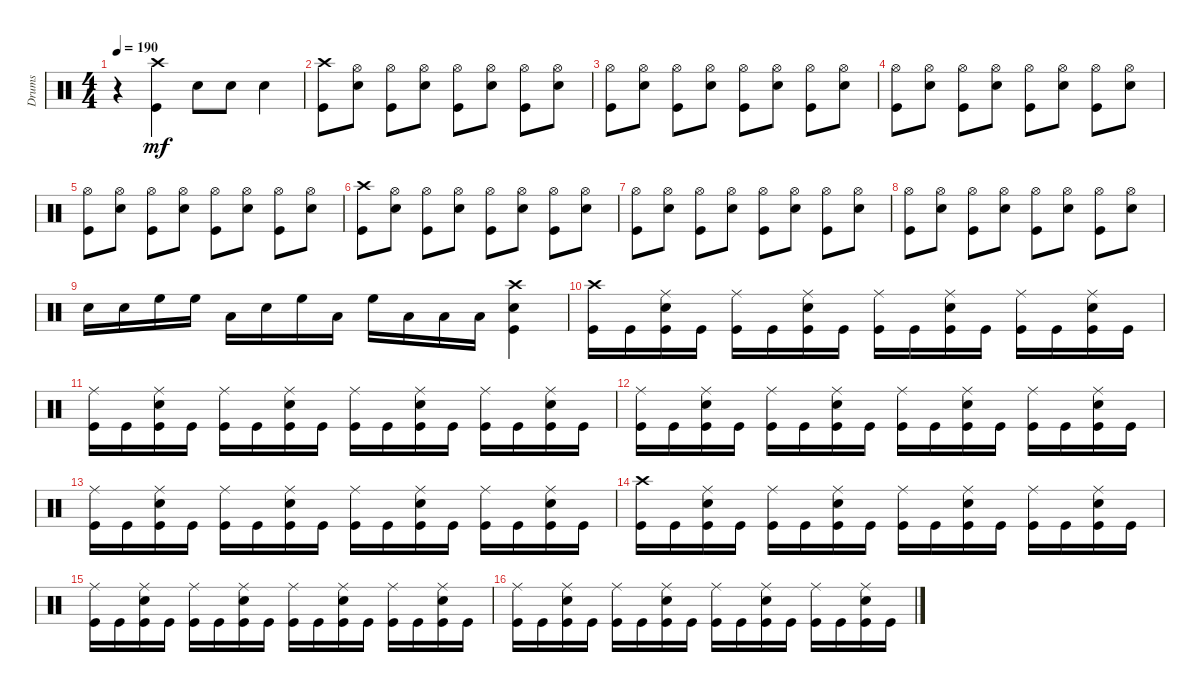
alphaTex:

\track ("Drums" "Drums") {instrument percussion}
\staff {score}
\articulation defaults
\ts (4 4)
\tempo 190
\clef neutral
\ks c
r.4{dy mf} ("Crash high (hit)" "Kick (hit)").4 "Snare (hit) 2".8 "Snare (hit) 2".8 "Snare (hit) 2".4 |
("Crash high (hit)" "Kick (hit)").8 ("Snare (hit) 2" "Hi-Hat (open)").8 ("Hi-Hat (open)" "Kick (hit)").8 ("Snare (hit) 2" "Hi-Hat (open)").8 ("Hi-Hat (open)" "Kick (hit)").8 ("Snare (hit) 2" "Hi-Hat (open)").8 ("Hi-Hat (open)" "Kick (hit)").8 ("Snare (hit) 2" "Hi-Hat (open)").8 |
("Kick (hit)" "Hi-Hat (open)").8 ("Snare (hit) 2" "Hi-Hat (open)").8 ("Kick (hit)" "Hi-Hat (open)").8 ("Snare (hit) 2" "Hi-Hat (open)").8 ("Kick (hit)" "Hi-Hat (open)").8 ("Snare (hit) 2" "Hi-Hat (open)").8 ("Kick (hit)" "Hi-Hat (open)").8 ("Snare (hit) 2" "Hi-Hat (open)").8 |
("Hi-Hat (open)" "Kick (hit)").8 ("Snare (hit) 2" "Hi-Hat (open)").8 ("Hi-Hat (open)" "Kick (hit)").8 ("Snare (hit) 2" "Hi-Hat (open)").8 ("Hi-Hat (open)" "Kick (hit)").8 ("Snare (hit) 2" "Hi-Hat (open)").8 ("Hi-Hat (open)" "Kick (hit)").8 ("Snare (hit) 2" "Hi-Hat (open)").8 |
("Hi-Hat (open)" "Kick (hit)").8 ("Snare (hit) 2" "Hi-Hat (open)").8 ("Hi-Hat (open)" "Kick (hit)").8 ("Snare (hit) 2" "Hi-Hat (open)").8 ("Hi-Hat (open)" "Kick (hit)").8 ("Snare (hit) 2" "Hi-Hat (open)").8 ("Hi-Hat (open)" "Kick (hit)").8 ("Snare (hit) 2" "Hi-Hat (open)").8 |
("Kick (hit)" "Crash high (hit)").8 ("Snare (hit) 2" "Hi-Hat (open)").8 ("Kick (hit)" "Hi-Hat (open)").8 ("Snare (hit) 2" "Hi-Hat (open)").8 ("Kick (hit)" "Hi-Hat (open)").8 ("Snare (hit) 2" "Hi-Hat (open)").8 ("Kick (hit)" "Hi-Hat (open)").8 ("Snare (hit) 2" "Hi-Hat (open)").8 |
("Hi-Hat (open)" "Kick (hit)").8 ("Snare (hit) 2" "Hi-Hat (open)").8 ("Hi-Hat (open)" "Kick (hit)").8 ("Snare (hit) 2" "Hi-Hat (open)").8 ("Hi-Hat (open)" "Kick (hit)").8 ("Snare (hit) 2" "Hi-Hat (open)").8 ("Hi-Hat (open)" "Kick (hit)").8 ("Snare (hit) 2" "Hi-Hat (open)").8 |
("Kick (hit)" "Hi-Hat (open)").8 ("Snare (hit) 2" "Hi-Hat (open)").8 ("Kick (hit)" "Hi-Hat (open)").8 ("Snare (hit) 2" "Hi-Hat (open)").8 ("Kick (hit)" "Hi-Hat (open)").8 ("Snare (hit) 2" "Hi-Hat (open)").8 ("Kick (hit)" "Hi-Hat (open)").8 ("Snare (hit) 2" "Hi-Hat (open)").8 |
"Snare (hit) 2".16 "Snare (hit) 2".16 "High Floor Tom (hit)".16 "High Floor Tom (hit)".16 "Low Tom (hit)".16 "Snare (hit) 2".16 "High Floor Tom (hit)".16 "Low Tom (hit)".16 "High Floor Tom (hit)".16 "Low Tom (hit)".16 "Low Floor Tom (hit)".16 "Low Floor Tom (hit)".16 ("Snare (hit) 2" "Crash high (hit)" "Kick (hit)").4 |
("Crash high (hit)" "Kick (hit)").16 "Kick (hit)".16 ("Snare (hit) 2" "Ride (middle)" "Kick (hit)").16 "Kick (hit)".16 ("Ride (middle)" "Kick (hit)").16 "Kick (hit)".16 ("Snare (hit) 2" "Ride (middle)" "Kick (hit)").16 "Kick (hit)".16 ("Ride (middle)" "Kick (hit)").16 "Kick (hit)".16 ("Snare (hit) 2" "Ride (middle)" "Kick (hit)").16 "Kick (hit)".16 ("Ride (middle)" "Kick (hit)").16 "Kick (hit)".16 ("Snare (hit) 2" "Ride (middle)" "Kick (hit)").16 "Kick (hit)".16 |
("Kick (hit)" "Ride (middle)").16 "Kick (hit)".16 ("Kick (hit)" "Snare (hit) 2" "Ride (middle)").16 "Kick (hit)".16 ("Kick (hit)" "Ride (middle)").16 "Kick (hit)".16 ("Kick (hit)" "Snare (hit) 2" "Ride (middle)").16 "Kick (hit)".16 ("Kick (hit)" "Ride (middle)").16 "Kick (hit)".16 ("Kick (hit)" "Snare (hit) 2" "Ride (middle)").16 "Kick (hit)".16 ("Kick (hit)" "Ride (middle)").16 "Kick (hit)".16 ("Kick (hit)" "Snare (hit) 2" "Ride (middle)").16 "Kick (hit)".16 |
("Kick (hit)" "Ride (middle)").16 "Kick (hit)".16 ("Kick (hit)" "Snare (hit) 2" "Ride (middle)").16 "Kick (hit)".16 ("Kick (hit)" "Ride (middle)").16 "Kick (hit)".16 ("Kick (hit)" "Snare (hit) 2" "Ride (middle)").16 "Kick (hit)".16 ("Kick (hit)" "Ride (middle)").16 "Kick (hit)".16 ("Kick (hit)" "Snare (hit) 2" "Ride (middle)").16 "Kick (hit)".16 ("Kick (hit)" "Ride (middle)").16 "Kick (hit)".16 ("Kick (hit)" "Snare (hit) 2" "Ride (middle)").16 "Kick (hit)".16 |
("Kick (hit)" "Ride (middle)").16 "Kick (hit)".16 ("Kick (hit)" "Snare (hit) 2" "Ride (middle)").16 "Kick (hit)".16 ("Kick (hit)" "Ride (middle)").16 "Kick (hit)".16 ("Kick (hit)" "Snare (hit) 2" "Ride (middle)").16 "Kick (hit)".16 ("Kick (hit)" "Ride (middle)").16 "Kick (hit)".16 ("Kick (hit)" "Snare (hit) 2" "Ride (middle)").16 "Kick (hit)".16 ("Kick (hit)" "Ride (middle)").16 "Kick (hit)".16 ("Kick (hit)" "Snare (hit) 2" "Ride (middle)").16 "Kick (hit)".16 |
("Kick (hit)" "Crash high (hit)").16 "Kick (hit)".16 ("Kick (hit)" "Snare (hit) 2" "Ride (middle)").16 "Kick (hit)".16 ("Kick (hit)" "Ride (middle)").16 "Kick (hit)".16 ("Kick (hit)" "Snare (hit) 2" "Ride (middle)").16 "Kick (hit)".16 ("Kick (hit)" "Ride (middle)").16 "Kick (hit)".16 ("Kick (hit)" "Snare (hit) 2" "Ride (middle)").16 "Kick (hit)".16 ("Kick (hit)" "Ride (middle)").16 "Kick (hit)".16 ("Kick (hit)" "Snare (hit) 2" "Ride (middle)").16 "Kick (hit)".16 |
("Kick (hit)" "Ride (middle)").16 "Kick (hit)".16 ("Kick (hit)" "Snare (hit) 2" "Ride (middle)").16 "Kick (hit)".16 ("Kick (hit)" "Ride (middle)").16 "Kick (hit)".16 ("Kick (hit)" "Snare (hit) 2" "Ride (middle)").16 "Kick (hit)".16 ("Kick (hit)" "Ride (middle)").16 "Kick (hit)".16 ("Kick (hit)" "Snare (hit) 2" "Ride (middle)").16 "Kick (hit)".16 ("Kick (hit)" "Ride (middle)").16 "Kick (hit)".16 ("Kick (hit)" "Snare (hit) 2" "Ride (middle)").16 "Kick (hit)".16 |
("Kick (hit)" "Ride (middle)").16 "Kick (hit)".16 ("Kick (hit)" "Snare (hit) 2" "Ride (middle)").16 "Kick (hit)".16 ("Kick (hit)" "Ride (middle)").16 "Kick (hit)".16 ("Kick (hit)" "Snare (hit) 2" "Ride (middle)").16 "Kick (hit)".16 ("Kick (hit)" "Ride (middle)").16 "Kick (hit)".16 ("Kick (hit)" "Snare (hit) 2" "Ride (middle)").16 "Kick (hit)".16 ("Kick (hit)" "Ride (middle)").16 "Kick (hit)".16 ("Kick (hit)" "Snare (hit) 2" "Ride (middle)").16 "Kick (hit)".16
